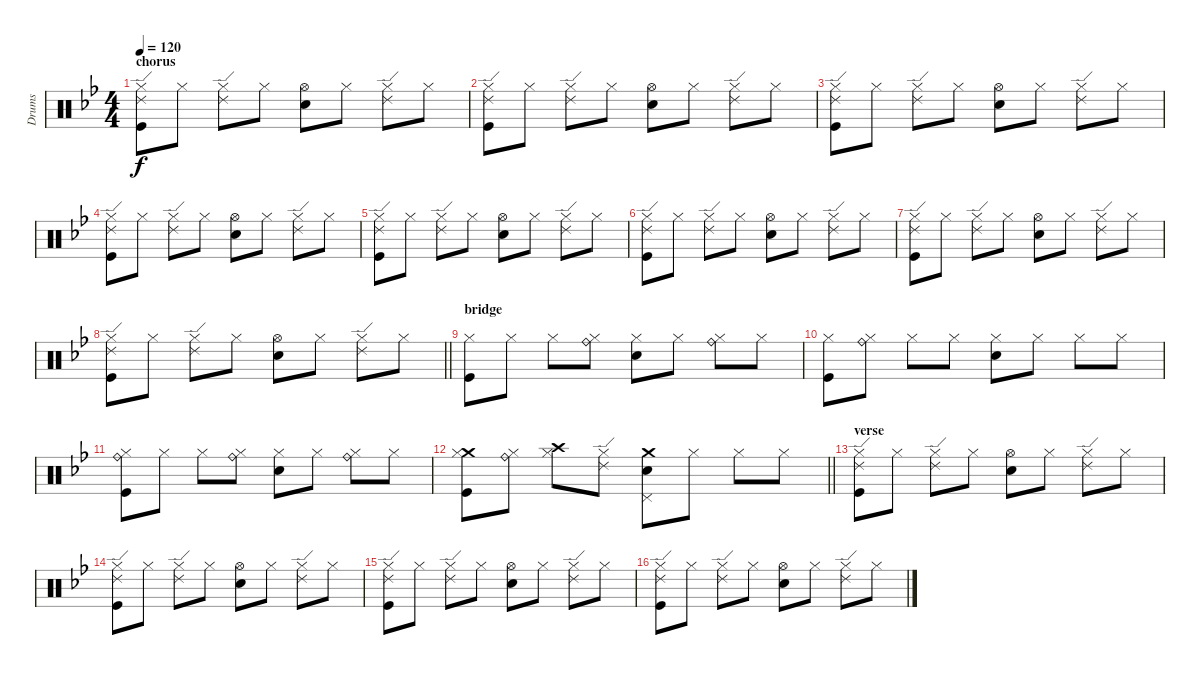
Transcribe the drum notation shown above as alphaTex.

\track ("Drums" "Drums") {instrument percussion}
\staff {score}
\articulation defaults
\ts (4 4)
\section ("" "chorus")
\tempo 120
\clef neutral
\ks gminor
("Hi-Hat (closed)" "Ride (edge) 2" "Kick (hit)").8{dy f} "Hi-Hat (closed)".8 ("Hi-Hat (closed)" "Ride (edge) 2").8 "Hi-Hat (closed)".8 ("Hi-Hat (open)" "Electric Snare (hit)").8 "Hi-Hat (closed)".8 ("Hi-Hat (closed)" "Ride (edge) 2").8 "Hi-Hat (closed)".8 |
("Hi-Hat (closed)" "Ride (edge) 2" "Kick (hit)").8 "Hi-Hat (closed)".8 ("Hi-Hat (closed)" "Ride (edge) 2").8 "Hi-Hat (closed)".8 ("Hi-Hat (open)" "Electric Snare (hit)").8 "Hi-Hat (closed)".8 ("Hi-Hat (closed)" "Ride (edge) 2").8 "Hi-Hat (closed)".8 |
("Hi-Hat (closed)" "Ride (edge) 2" "Kick (hit)").8 "Hi-Hat (closed)".8 ("Hi-Hat (closed)" "Ride (edge) 2").8 "Hi-Hat (closed)".8 ("Hi-Hat (open)" "Electric Snare (hit)").8 "Hi-Hat (closed)".8 ("Hi-Hat (closed)" "Ride (edge) 2").8 "Hi-Hat (closed)".8 |
("Hi-Hat (closed)" "Ride (edge) 2" "Kick (hit)").8 "Hi-Hat (closed)".8 ("Hi-Hat (closed)" "Ride (edge) 2").8 "Hi-Hat (closed)".8 ("Hi-Hat (open)" "Electric Snare (hit)").8 "Hi-Hat (closed)".8 ("Hi-Hat (closed)" "Ride (edge) 2").8 "Hi-Hat (closed)".8 |
("Hi-Hat (closed)" "Ride (edge) 2" "Kick (hit)").8 "Hi-Hat (closed)".8 ("Hi-Hat (closed)" "Ride (edge) 2").8 "Hi-Hat (closed)".8 ("Hi-Hat (open)" "Electric Snare (hit)").8 "Hi-Hat (closed)".8 ("Hi-Hat (closed)" "Ride (edge) 2").8 "Hi-Hat (closed)".8 |
("Hi-Hat (closed)" "Ride (edge) 2" "Kick (hit)").8 "Hi-Hat (closed)".8 ("Hi-Hat (closed)" "Ride (edge) 2").8 "Hi-Hat (closed)".8 ("Hi-Hat (open)" "Electric Snare (hit)").8 "Hi-Hat (closed)".8 ("Hi-Hat (closed)" "Ride (edge) 2").8 "Hi-Hat (closed)".8 |
("Hi-Hat (closed)" "Ride (edge) 2" "Kick (hit)").8 "Hi-Hat (closed)".8 ("Hi-Hat (closed)" "Ride (edge) 2").8 "Hi-Hat (closed)".8 ("Hi-Hat (open)" "Electric Snare (hit)").8 "Hi-Hat (closed)".8 ("Hi-Hat (closed)" "Ride (edge) 2").8 "Hi-Hat (closed)".8 |
\barLineRight lightlight
("Hi-Hat (closed)" "Ride (edge) 2" "Kick (hit)").8 "Hi-Hat (closed)".8 ("Hi-Hat (closed)" "Ride (edge) 2").8 "Hi-Hat (closed)".8 ("Hi-Hat (open)" "Electric Snare (hit)").8 "Hi-Hat (closed)".8 ("Hi-Hat (closed)" "Ride (edge) 2").8 "Hi-Hat (closed)".8 |
\section ("" "bridge")
("Hi-Hat (closed)" "Kick (hit)").8 "Hi-Hat (closed)".8 "Hi-Hat (closed)".8 ("Ride (bell)" "Hi-Hat (closed)").8 ("Hi-Hat (closed)" "Electric Snare (hit)").8 "Hi-Hat (closed)".8 ("Ride (bell)" "Hi-Hat (closed)").8 "Hi-Hat (closed)".8 |
("Hi-Hat (closed)" "Kick (hit)").8 ("Ride (bell)" "Hi-Hat (closed)").8 "Hi-Hat (closed)".8 "Hi-Hat (closed)".8 ("Hi-Hat (closed)" "Electric Snare (hit)").8 "Hi-Hat (closed)".8 "Hi-Hat (closed)".8 "Hi-Hat (closed)".8 |
("Ride (bell)" "Hi-Hat (closed)" "Kick (hit)").8 "Hi-Hat (closed)".8 "Hi-Hat (closed)".8 ("Ride (bell)" "Hi-Hat (closed)").8 ("Hi-Hat (closed)" "Electric Snare (hit)").8 "Hi-Hat (closed)".8 ("Ride (bell)" "Hi-Hat (closed)").8 "Hi-Hat (closed)".8 |
\barLineRight lightlight
("Crash medium (hit)" "Hi-Hat (closed)" "Kick (hit)").8 ("Ride (bell)" "Hi-Hat (closed)").8 ("Crash high (hit)" "Hi-Hat (closed)").8 ("Ride (edge) 2" "Hi-Hat (closed)").8 ("Crash medium (hit)" "Pedal Hi-Hat (hit)" "Electric Snare (hit)").8 "Hi-Hat (closed)".8 "Hi-Hat (closed)".8 "Hi-Hat (closed)".8 |
\section ("" "verse")
("Hi-Hat (closed)" "Ride (edge) 2" "Kick (hit)").8 "Hi-Hat (closed)".8 ("Hi-Hat (closed)" "Ride (edge) 2").8 "Hi-Hat (closed)".8 ("Hi-Hat (open)" "Electric Snare (hit)").8 "Hi-Hat (closed)".8 ("Hi-Hat (closed)" "Ride (edge) 2").8 "Hi-Hat (closed)".8 |
("Hi-Hat (closed)" "Ride (edge) 2" "Kick (hit)").8 "Hi-Hat (closed)".8 ("Hi-Hat (closed)" "Ride (edge) 2").8 "Hi-Hat (closed)".8 ("Hi-Hat (open)" "Electric Snare (hit)").8 "Hi-Hat (closed)".8 ("Hi-Hat (closed)" "Ride (edge) 2").8 "Hi-Hat (closed)".8 |
("Hi-Hat (closed)" "Ride (edge) 2" "Kick (hit)").8 "Hi-Hat (closed)".8 ("Hi-Hat (closed)" "Ride (edge) 2").8 "Hi-Hat (closed)".8 ("Hi-Hat (open)" "Electric Snare (hit)").8 "Hi-Hat (closed)".8 ("Hi-Hat (closed)" "Ride (edge) 2").8 "Hi-Hat (closed)".8 |
("Hi-Hat (closed)" "Ride (edge) 2" "Kick (hit)").8 "Hi-Hat (closed)".8 ("Hi-Hat (closed)" "Ride (edge) 2").8 "Hi-Hat (closed)".8 ("Hi-Hat (open)" "Electric Snare (hit)").8 "Hi-Hat (closed)".8 ("Hi-Hat (closed)" "Ride (edge) 2").8 "Hi-Hat (closed)".8
